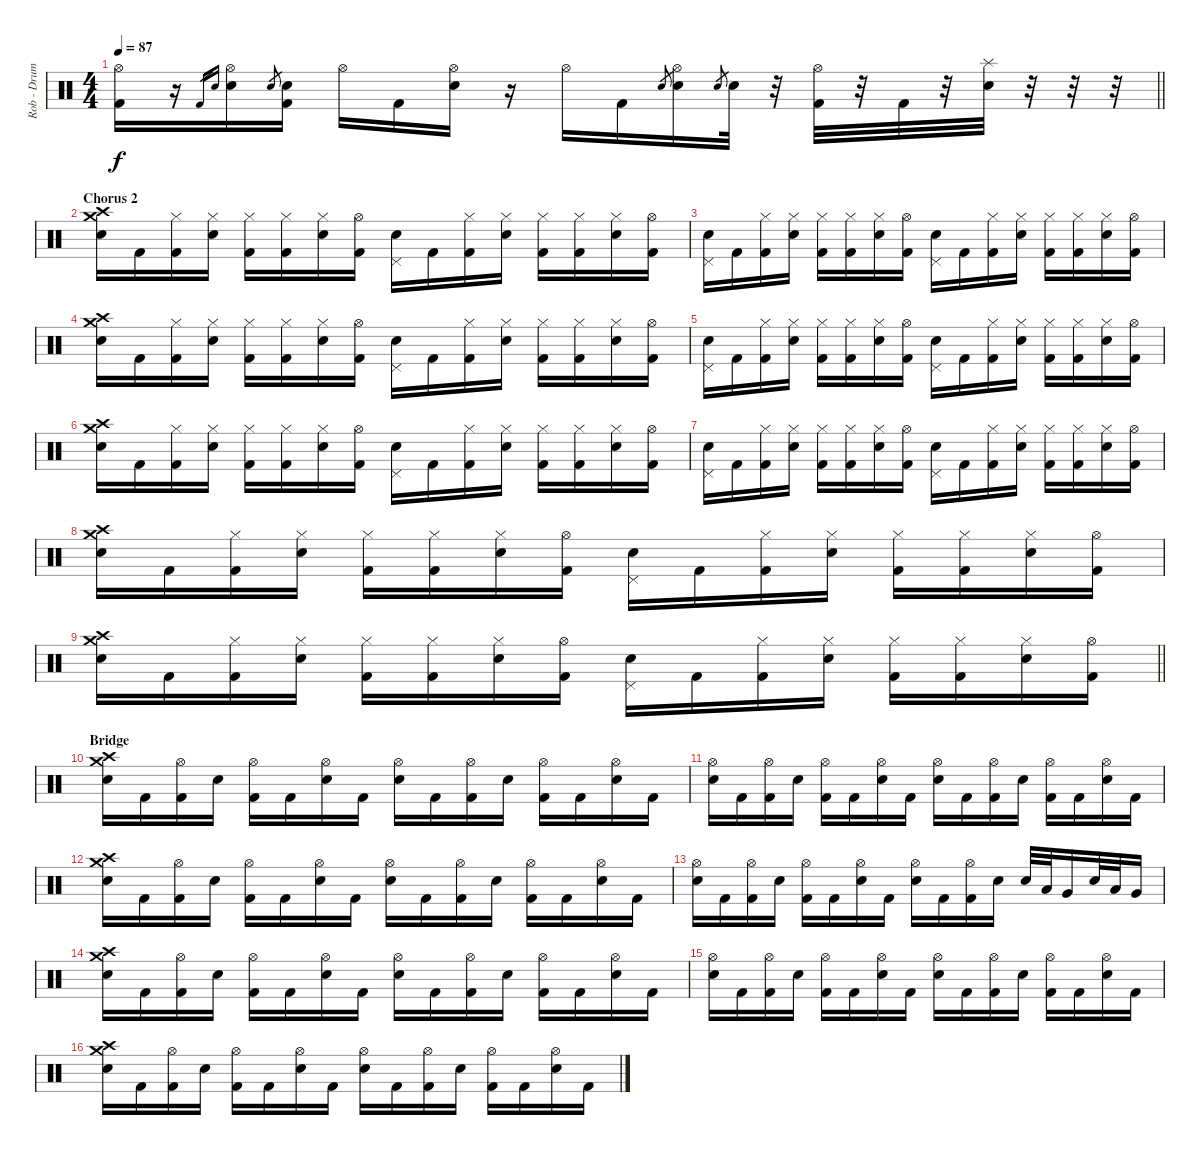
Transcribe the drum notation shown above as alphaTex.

\track ("Rob - Drums" "Rob - Drum") {instrument percussion}
\staff {score}
\articulation defaults
\ts (4 4)
\tempo 87
\clef neutral
\barLineRight lightlight
\ks c
("Hi-Hat (open)" "Kick (hit) 2").16{dy f} r.16 "Kick (hit) 2".16{gr} "Electric Snare (hit)".16{gr} ("Hi-Hat (open)" "Electric Snare (hit)").16 "Electric Snare (hit)".8{gr} ("Electric Snare (hit)" "Kick (hit) 2").16 "Hi-Hat (open)".16 "Kick (hit) 2".16 ("Hi-Hat (open)" "Electric Snare (hit)").16 r.16 "Hi-Hat (open)".16 "Kick (hit) 2".16 "Electric Snare (hit)".8{gr} ("Hi-Hat (open)" "Electric Snare (hit)").16 "Electric Snare (hit)".8{gr} "Electric Snare (hit)".32 r.32 ("Hi-Hat (open)" "Kick (hit) 2").32 r.32 "Kick (hit) 2".32 r.32 ("Splash (hit)" "Electric Snare (hit)").32 r.32 r.32 r.32 |
\section ("" "Chorus 2")
("Crash medium (hit)" "Crash high (hit)" "Electric Snare (hit)").16 "Kick (hit) 2".16 ("Hi-Hat (closed)" "Kick (hit) 2").16 ("Hi-Hat (closed)" "Electric Snare (hit)").16 ("Hi-Hat (closed)" "Kick (hit) 2").16 ("Hi-Hat (closed)" "Kick (hit) 2").16 ("Hi-Hat (closed)" "Electric Snare (hit)").16 ("Hi-Hat (open)" "Kick (hit) 2").16 ("Pedal Hi-Hat (hit)" "Electric Snare (hit)").16 "Kick (hit) 2".16 ("Hi-Hat (closed)" "Kick (hit) 2").16 ("Hi-Hat (closed)" "Electric Snare (hit)").16 ("Hi-Hat (closed)" "Kick (hit) 2").16 ("Hi-Hat (closed)" "Kick (hit) 2").16 ("Hi-Hat (closed)" "Electric Snare (hit)").16 ("Hi-Hat (open)" "Kick (hit) 2").16 |
("Pedal Hi-Hat (hit)" "Electric Snare (hit)").16 "Kick (hit) 2".16 ("Hi-Hat (closed)" "Kick (hit) 2").16 ("Hi-Hat (closed)" "Electric Snare (hit)").16 ("Hi-Hat (closed)" "Kick (hit) 2").16 ("Hi-Hat (closed)" "Kick (hit) 2").16 ("Hi-Hat (closed)" "Electric Snare (hit)").16 ("Hi-Hat (open)" "Kick (hit) 2").16 ("Pedal Hi-Hat (hit)" "Electric Snare (hit)").16 "Kick (hit) 2".16 ("Hi-Hat (closed)" "Kick (hit) 2").16 ("Hi-Hat (closed)" "Electric Snare (hit)").16 ("Hi-Hat (closed)" "Kick (hit) 2").16 ("Hi-Hat (closed)" "Kick (hit) 2").16 ("Hi-Hat (closed)" "Electric Snare (hit)").16 ("Hi-Hat (open)" "Kick (hit) 2").16 |
("Crash medium (hit)" "Crash high (hit)" "Electric Snare (hit)").16 "Kick (hit) 2".16 ("Hi-Hat (closed)" "Kick (hit) 2").16 ("Hi-Hat (closed)" "Electric Snare (hit)").16 ("Hi-Hat (closed)" "Kick (hit) 2").16 ("Hi-Hat (closed)" "Kick (hit) 2").16 ("Hi-Hat (closed)" "Electric Snare (hit)").16 ("Hi-Hat (open)" "Kick (hit) 2").16 ("Pedal Hi-Hat (hit)" "Electric Snare (hit)").16 "Kick (hit) 2".16 ("Hi-Hat (closed)" "Kick (hit) 2").16 ("Hi-Hat (closed)" "Electric Snare (hit)").16 ("Hi-Hat (closed)" "Kick (hit) 2").16 ("Hi-Hat (closed)" "Kick (hit) 2").16 ("Hi-Hat (closed)" "Electric Snare (hit)").16 ("Hi-Hat (open)" "Kick (hit) 2").16 |
("Pedal Hi-Hat (hit)" "Electric Snare (hit)").16 "Kick (hit) 2".16 ("Hi-Hat (closed)" "Kick (hit) 2").16 ("Hi-Hat (closed)" "Electric Snare (hit)").16 ("Hi-Hat (closed)" "Kick (hit) 2").16 ("Hi-Hat (closed)" "Kick (hit) 2").16 ("Hi-Hat (closed)" "Electric Snare (hit)").16 ("Hi-Hat (open)" "Kick (hit) 2").16 ("Pedal Hi-Hat (hit)" "Electric Snare (hit)").16 "Kick (hit) 2".16 ("Hi-Hat (closed)" "Kick (hit) 2").16 ("Hi-Hat (closed)" "Electric Snare (hit)").16 ("Hi-Hat (closed)" "Kick (hit) 2").16 ("Hi-Hat (closed)" "Kick (hit) 2").16 ("Hi-Hat (closed)" "Electric Snare (hit)").16 ("Hi-Hat (open)" "Kick (hit) 2").16 |
("Crash medium (hit)" "Crash high (hit)" "Electric Snare (hit)").16 "Kick (hit) 2".16 ("Hi-Hat (closed)" "Kick (hit) 2").16 ("Hi-Hat (closed)" "Electric Snare (hit)").16 ("Hi-Hat (closed)" "Kick (hit) 2").16 ("Hi-Hat (closed)" "Kick (hit) 2").16 ("Hi-Hat (closed)" "Electric Snare (hit)").16 ("Hi-Hat (open)" "Kick (hit) 2").16 ("Pedal Hi-Hat (hit)" "Electric Snare (hit)").16 "Kick (hit) 2".16 ("Hi-Hat (closed)" "Kick (hit) 2").16 ("Hi-Hat (closed)" "Electric Snare (hit)").16 ("Hi-Hat (closed)" "Kick (hit) 2").16 ("Hi-Hat (closed)" "Kick (hit) 2").16 ("Hi-Hat (closed)" "Electric Snare (hit)").16 ("Hi-Hat (open)" "Kick (hit) 2").16 |
("Pedal Hi-Hat (hit)" "Electric Snare (hit)").16 "Kick (hit) 2".16 ("Hi-Hat (closed)" "Kick (hit) 2").16 ("Hi-Hat (closed)" "Electric Snare (hit)").16 ("Hi-Hat (closed)" "Kick (hit) 2").16 ("Hi-Hat (closed)" "Kick (hit) 2").16 ("Hi-Hat (closed)" "Electric Snare (hit)").16 ("Hi-Hat (open)" "Kick (hit) 2").16 ("Pedal Hi-Hat (hit)" "Electric Snare (hit)").16 "Kick (hit) 2".16 ("Hi-Hat (closed)" "Kick (hit) 2").16 ("Hi-Hat (closed)" "Electric Snare (hit)").16 ("Hi-Hat (closed)" "Kick (hit) 2").16 ("Hi-Hat (closed)" "Kick (hit) 2").16 ("Hi-Hat (closed)" "Electric Snare (hit)").16 ("Hi-Hat (open)" "Kick (hit) 2").16 |
("Crash medium (hit)" "Crash high (hit)" "Electric Snare (hit)").16 "Kick (hit) 2".16 ("Hi-Hat (closed)" "Kick (hit) 2").16 ("Hi-Hat (closed)" "Electric Snare (hit)").16 ("Hi-Hat (closed)" "Kick (hit) 2").16 ("Hi-Hat (closed)" "Kick (hit) 2").16 ("Hi-Hat (closed)" "Electric Snare (hit)").16 ("Hi-Hat (open)" "Kick (hit) 2").16 ("Pedal Hi-Hat (hit)" "Electric Snare (hit)").16 "Kick (hit) 2".16 ("Hi-Hat (closed)" "Kick (hit) 2").16 ("Hi-Hat (closed)" "Electric Snare (hit)").16 ("Hi-Hat (closed)" "Kick (hit) 2").16 ("Hi-Hat (closed)" "Kick (hit) 2").16 ("Hi-Hat (closed)" "Electric Snare (hit)").16 ("Hi-Hat (open)" "Kick (hit) 2").16 |
\barLineRight lightlight
("Crash medium (hit)" "Crash high (hit)" "Electric Snare (hit)").16 "Kick (hit) 2".16 ("Hi-Hat (closed)" "Kick (hit) 2").16 ("Hi-Hat (closed)" "Electric Snare (hit)").16 ("Hi-Hat (closed)" "Kick (hit) 2").16 ("Hi-Hat (closed)" "Kick (hit) 2").16 ("Hi-Hat (closed)" "Electric Snare (hit)").16 ("Hi-Hat (open)" "Kick (hit) 2").16 ("Pedal Hi-Hat (hit)" "Electric Snare (hit)").16 "Kick (hit) 2".16 ("Hi-Hat (closed)" "Kick (hit) 2").16 ("Hi-Hat (closed)" "Electric Snare (hit)").16 ("Hi-Hat (closed)" "Kick (hit) 2").16 ("Hi-Hat (closed)" "Kick (hit) 2").16 ("Hi-Hat (closed)" "Electric Snare (hit)").16 ("Hi-Hat (open)" "Kick (hit) 2").16 |
\section ("" "Bridge")
("Crash medium (hit)" "Crash high (hit)" "Electric Snare (hit)").16 "Kick (hit) 2".16 ("Hi-Hat (open)" "Kick (hit) 2").16 "Electric Snare (hit)".16 ("Hi-Hat (open)" "Kick (hit) 2").16 "Kick (hit) 2".16 ("Hi-Hat (open)" "Electric Snare (hit)").16 "Kick (hit) 2".16 ("Hi-Hat (open)" "Electric Snare (hit)").16 "Kick (hit) 2".16 ("Hi-Hat (open)" "Kick (hit) 2").16 "Electric Snare (hit)".16 ("Hi-Hat (open)" "Kick (hit) 2").16 "Kick (hit) 2".16 ("Hi-Hat (open)" "Electric Snare (hit)").16 "Kick (hit) 2".16 |
("Hi-Hat (open)" "Electric Snare (hit)").16 "Kick (hit) 2".16 ("Hi-Hat (open)" "Kick (hit) 2").16 "Electric Snare (hit)".16 ("Hi-Hat (open)" "Kick (hit) 2").16 "Kick (hit) 2".16 ("Hi-Hat (open)" "Electric Snare (hit)").16 "Kick (hit) 2".16 ("Hi-Hat (open)" "Electric Snare (hit)").16 "Kick (hit) 2".16 ("Hi-Hat (open)" "Kick (hit) 2").16 "Electric Snare (hit)".16 ("Hi-Hat (open)" "Kick (hit) 2").16 "Kick (hit) 2".16 ("Hi-Hat (open)" "Electric Snare (hit)").16 "Kick (hit) 2".16 |
("Crash medium (hit)" "Crash high (hit)" "Electric Snare (hit)").16 "Kick (hit) 2".16 ("Hi-Hat (open)" "Kick (hit) 2").16 "Electric Snare (hit)".16 ("Hi-Hat (open)" "Kick (hit) 2").16 "Kick (hit) 2".16 ("Hi-Hat (open)" "Electric Snare (hit)").16 "Kick (hit) 2".16 ("Hi-Hat (open)" "Electric Snare (hit)").16 "Kick (hit) 2".16 ("Hi-Hat (open)" "Kick (hit) 2").16 "Electric Snare (hit)".16 ("Hi-Hat (open)" "Kick (hit) 2").16 "Kick (hit) 2".16 ("Hi-Hat (open)" "Electric Snare (hit)").16 "Kick (hit) 2".16 |
("Hi-Hat (open)" "Electric Snare (hit)").16 "Kick (hit) 2".16 ("Hi-Hat (open)" "Kick (hit) 2").16 "Electric Snare (hit)".16 ("Hi-Hat (open)" "Kick (hit) 2").16 "Kick (hit) 2".16 ("Hi-Hat (open)" "Electric Snare (hit)").16 "Kick (hit) 2".16 ("Hi-Hat (open)" "Electric Snare (hit)").16 "Kick (hit) 2".16 ("Hi-Hat (open)" "Kick (hit) 2").16 "Electric Snare (hit)".16 "Electric Snare (hit)".32 "Low Tom (hit)".32 "Very Low Tom (hit)".16 "Electric Snare (hit)".32 "Low Tom (hit)".32 "Very Low Tom (hit)".16 |
("Crash medium (hit)" "Crash high (hit)" "Electric Snare (hit)").16 "Kick (hit) 2".16 ("Hi-Hat (open)" "Kick (hit) 2").16 "Electric Snare (hit)".16 ("Hi-Hat (open)" "Kick (hit) 2").16 "Kick (hit) 2".16 ("Hi-Hat (open)" "Electric Snare (hit)").16 "Kick (hit) 2".16 ("Hi-Hat (open)" "Electric Snare (hit)").16 "Kick (hit) 2".16 ("Hi-Hat (open)" "Kick (hit) 2").16 "Electric Snare (hit)".16 ("Hi-Hat (open)" "Kick (hit) 2").16 "Kick (hit) 2".16 ("Hi-Hat (open)" "Electric Snare (hit)").16 "Kick (hit) 2".16 |
("Hi-Hat (open)" "Electric Snare (hit)").16 "Kick (hit) 2".16 ("Hi-Hat (open)" "Kick (hit) 2").16 "Electric Snare (hit)".16 ("Hi-Hat (open)" "Kick (hit) 2").16 "Kick (hit) 2".16 ("Hi-Hat (open)" "Electric Snare (hit)").16 "Kick (hit) 2".16 ("Hi-Hat (open)" "Electric Snare (hit)").16 "Kick (hit) 2".16 ("Hi-Hat (open)" "Kick (hit) 2").16 "Electric Snare (hit)".16 ("Hi-Hat (open)" "Kick (hit) 2").16 "Kick (hit) 2".16 ("Hi-Hat (open)" "Electric Snare (hit)").16 "Kick (hit) 2".16 |
("Crash medium (hit)" "Crash high (hit)" "Electric Snare (hit)").16 "Kick (hit) 2".16 ("Hi-Hat (open)" "Kick (hit) 2").16 "Electric Snare (hit)".16 ("Hi-Hat (open)" "Kick (hit) 2").16 "Kick (hit) 2".16 ("Hi-Hat (open)" "Electric Snare (hit)").16 "Kick (hit) 2".16 ("Hi-Hat (open)" "Electric Snare (hit)").16 "Kick (hit) 2".16 ("Hi-Hat (open)" "Kick (hit) 2").16 "Electric Snare (hit)".16 ("Hi-Hat (open)" "Kick (hit) 2").16 "Kick (hit) 2".16 ("Hi-Hat (open)" "Electric Snare (hit)").16 "Kick (hit) 2".16
